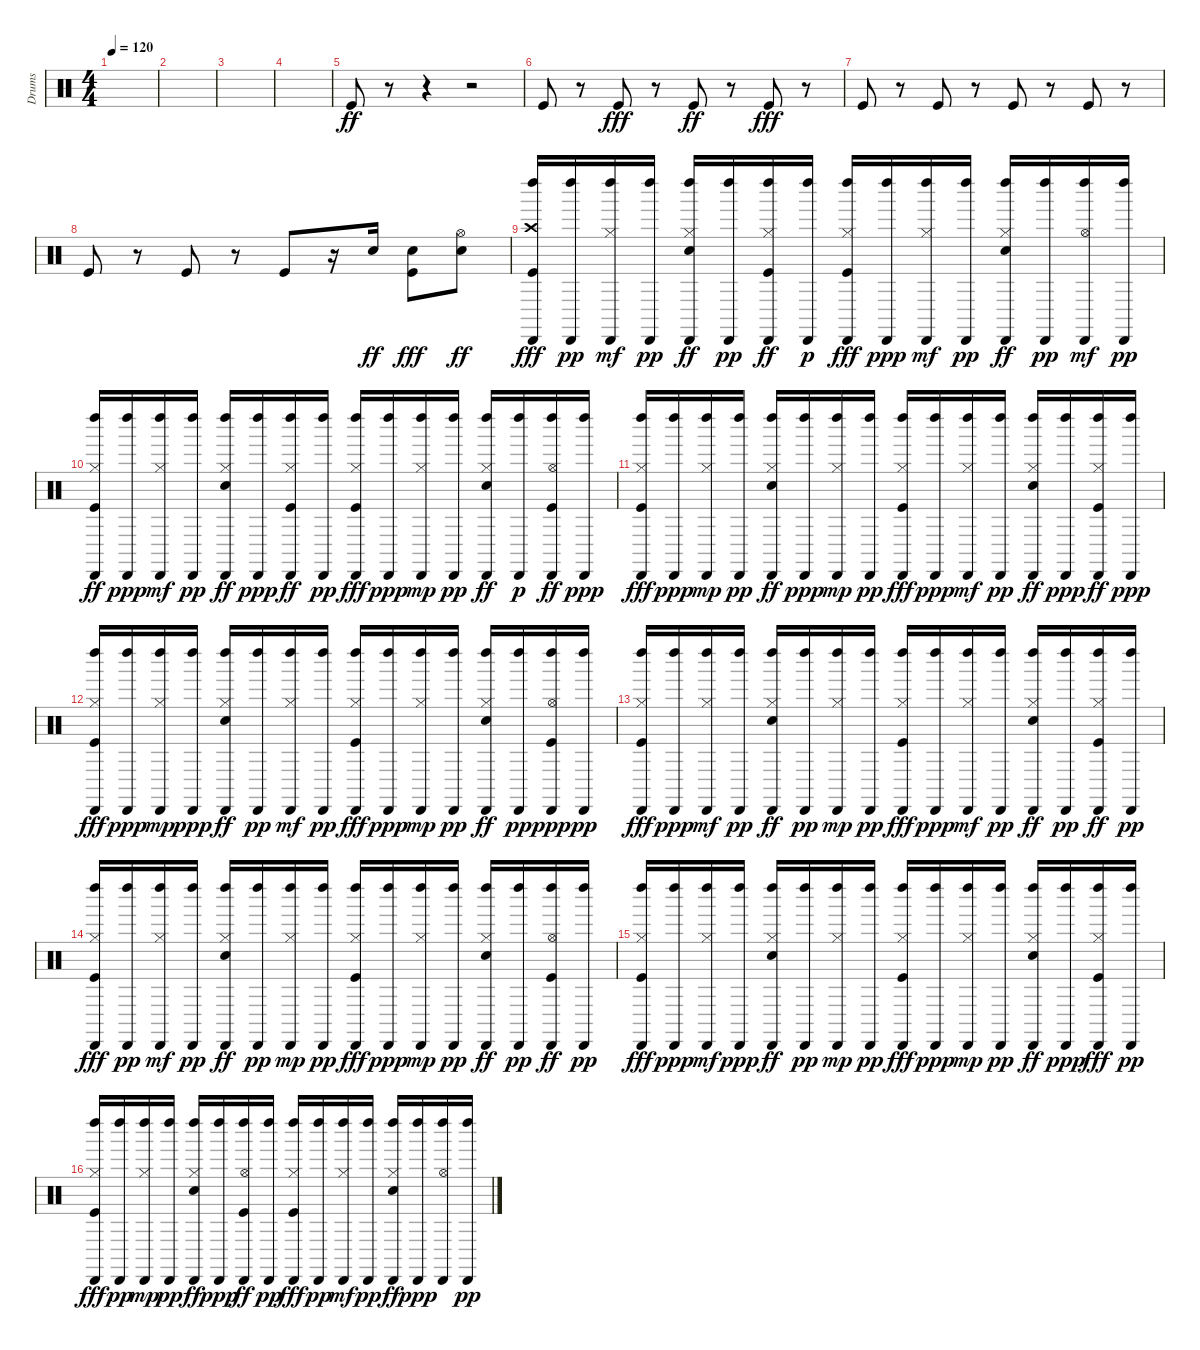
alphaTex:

\track ("Drums" "Drums") {instrument percussion}
\staff {score}
\articulation defaults
\ts (4 4)
\tempo 120
\clef neutral
\ks c
|
|
|
|
"Kick (hit)".8{dy ff} r.8 r.4 r.2 |
"Kick (hit)".8 r.8 "Kick (hit)".8{dy fff} r.8 "Kick (hit)".8{dy ff} r.8 "Kick (hit)".8{dy fff} r.8 |
"Kick (hit)".8 r.8 "Kick (hit)".8 r.8 "Kick (hit)".8 r.8 "Kick (hit)".8 r.8 |
"Kick (hit)".8 r.8 "Kick (hit)".8 r.8 "Kick (hit)".8 r.16 "Electric Snare (hit)".16{dy ff} ("Electric Snare (hit)" "Kick (hit)").8{dy fff} ("Hi-Hat (open)" "Electric Snare (hit)").8{dy ff} |
("Left Maraca (hit)" "Cabasa (hit)" "Crash high (hit)" "Kick (hit)").16{dy fff} ("Left Maraca (hit)" "Cabasa (hit)").16{dy pp} ("Left Maraca (hit)" "Cabasa (hit)" "Hi-Hat (closed)").16{dy mf} ("Left Maraca (hit)" "Cabasa (hit)").16{dy pp} ("Left Maraca (hit)" "Cabasa (hit)" "Hi-Hat (closed)" "Electric Snare (hit)").16{dy ff} ("Left Maraca (hit)" "Cabasa (hit)").16{dy pp} ("Left Maraca (hit)" "Cabasa (hit)" "Hi-Hat (closed)" "Kick (hit)").16{dy ff} ("Left Maraca (hit)" "Cabasa (hit)").16{dy p} ("Left Maraca (hit)" "Cabasa (hit)" "Hi-Hat (closed)" "Kick (hit)").16{dy fff} ("Left Maraca (hit)" "Cabasa (hit)").16{dy ppp} ("Left Maraca (hit)" "Cabasa (hit)" "Hi-Hat (closed)").16{dy mf} ("Left Maraca (hit)" "Cabasa (hit)").16{dy pp} ("Left Maraca (hit)" "Cabasa (hit)" "Hi-Hat (closed)" "Electric Snare (hit)").16{dy ff} ("Left Maraca (hit)" "Cabasa (hit)").16{dy pp} ("Left Maraca (hit)" "Cabasa (hit)" "Hi-Hat (open)").16{dy mf} ("Left Maraca (hit)" "Cabasa (hit)").16{dy pp} |
("Left Maraca (hit)" "Cabasa (hit)" "Hi-Hat (closed)" "Kick (hit)").16{dy ff} ("Left Maraca (hit)" "Cabasa (hit)").16{dy ppp} ("Left Maraca (hit)" "Cabasa (hit)" "Hi-Hat (closed)").16{dy mf} ("Left Maraca (hit)" "Cabasa (hit)").16{dy pp} ("Left Maraca (hit)" "Cabasa (hit)" "Hi-Hat (closed)" "Electric Snare (hit)").16{dy ff} ("Left Maraca (hit)" "Cabasa (hit)").16{dy ppp} ("Left Maraca (hit)" "Cabasa (hit)" "Hi-Hat (closed)" "Kick (hit)").16{dy ff} ("Left Maraca (hit)" "Cabasa (hit)").16{dy pp} ("Left Maraca (hit)" "Cabasa (hit)" "Hi-Hat (closed)" "Kick (hit)").16{dy fff} ("Left Maraca (hit)" "Cabasa (hit)").16{dy ppp} ("Left Maraca (hit)" "Cabasa (hit)" "Hi-Hat (closed)").16{dy mp} ("Left Maraca (hit)" "Cabasa (hit)").16{dy pp} ("Left Maraca (hit)" "Cabasa (hit)" "Hi-Hat (closed)" "Electric Snare (hit)").16{dy ff} ("Left Maraca (hit)" "Cabasa (hit)").16{dy p} ("Left Maraca (hit)" "Cabasa (hit)" "Hi-Hat (open)" "Kick (hit)").16{dy ff} ("Left Maraca (hit)" "Cabasa (hit)").16{dy ppp} |
("Left Maraca (hit)" "Cabasa (hit)" "Hi-Hat (closed)" "Kick (hit)").16{dy fff} ("Left Maraca (hit)" "Cabasa (hit)").16{dy ppp} ("Left Maraca (hit)" "Cabasa (hit)" "Hi-Hat (closed)").16{dy mp} ("Left Maraca (hit)" "Cabasa (hit)").16{dy pp} ("Left Maraca (hit)" "Cabasa (hit)" "Hi-Hat (closed)" "Electric Snare (hit)").16{dy ff} ("Left Maraca (hit)" "Cabasa (hit)").16{dy ppp} ("Left Maraca (hit)" "Cabasa (hit)" "Hi-Hat (closed)").16{dy mp} ("Left Maraca (hit)" "Cabasa (hit)").16{dy pp} ("Left Maraca (hit)" "Cabasa (hit)" "Hi-Hat (closed)" "Kick (hit)").16{dy fff} ("Left Maraca (hit)" "Cabasa (hit)").16{dy ppp} ("Left Maraca (hit)" "Cabasa (hit)" "Hi-Hat (closed)").16{dy mf} ("Left Maraca (hit)" "Cabasa (hit)").16{dy pp} ("Left Maraca (hit)" "Cabasa (hit)" "Hi-Hat (closed)" "Electric Snare (hit)").16{dy ff} ("Left Maraca (hit)" "Cabasa (hit)").16{dy ppp} ("Left Maraca (hit)" "Cabasa (hit)" "Hi-Hat (closed)" "Kick (hit)").16{dy ff} ("Left Maraca (hit)" "Cabasa (hit)").16{dy ppp} |
("Left Maraca (hit)" "Cabasa (hit)" "Hi-Hat (closed)" "Kick (hit)").16{dy fff} ("Left Maraca (hit)" "Cabasa (hit)").16{dy ppp} ("Left Maraca (hit)" "Cabasa (hit)" "Hi-Hat (closed)").16{dy mp} ("Left Maraca (hit)" "Cabasa (hit)").16{dy ppp} ("Left Maraca (hit)" "Cabasa (hit)" "Hi-Hat (closed)" "Electric Snare (hit)").16{dy ff} ("Left Maraca (hit)" "Cabasa (hit)").16{dy pp} ("Left Maraca (hit)" "Cabasa (hit)" "Hi-Hat (closed)").16{dy mf} ("Left Maraca (hit)" "Cabasa (hit)").16{dy pp} ("Left Maraca (hit)" "Cabasa (hit)" "Hi-Hat (closed)" "Kick (hit)").16{dy fff} ("Left Maraca (hit)" "Cabasa (hit)").16{dy ppp} ("Left Maraca (hit)" "Cabasa (hit)" "Hi-Hat (closed)").16{dy mp} ("Left Maraca (hit)" "Cabasa (hit)").16{dy pp} ("Left Maraca (hit)" "Cabasa (hit)" "Hi-Hat (closed)" "Electric Snare (hit)").16{dy ff} ("Left Maraca (hit)" "Cabasa (hit)").16{dy pp} ("Left Maraca (hit)" "Cabasa (hit)" "Hi-Hat (open)" "Kick (hit)").16{dy ppp} ("Left Maraca (hit)" "Cabasa (hit)").16{dy pp} |
("Left Maraca (hit)" "Cabasa (hit)" "Hi-Hat (closed)" "Kick (hit)").16{dy fff} ("Left Maraca (hit)" "Cabasa (hit)").16{dy ppp} ("Left Maraca (hit)" "Cabasa (hit)" "Hi-Hat (closed)").16{dy mf} ("Left Maraca (hit)" "Cabasa (hit)").16{dy pp} ("Left Maraca (hit)" "Cabasa (hit)" "Hi-Hat (closed)" "Electric Snare (hit)").16{dy ff} ("Left Maraca (hit)" "Cabasa (hit)").16{dy pp} ("Left Maraca (hit)" "Cabasa (hit)" "Hi-Hat (closed)").16{dy mp} ("Left Maraca (hit)" "Cabasa (hit)").16{dy pp} ("Left Maraca (hit)" "Cabasa (hit)" "Hi-Hat (closed)" "Kick (hit)").16{dy fff} ("Left Maraca (hit)" "Cabasa (hit)").16{dy ppp} ("Left Maraca (hit)" "Cabasa (hit)" "Hi-Hat (closed)").16{dy mf} ("Left Maraca (hit)" "Cabasa (hit)").16{dy pp} ("Left Maraca (hit)" "Cabasa (hit)" "Hi-Hat (closed)" "Electric Snare (hit)").16{dy ff} ("Left Maraca (hit)" "Cabasa (hit)").16{dy pp} ("Left Maraca (hit)" "Cabasa (hit)" "Hi-Hat (closed)" "Kick (hit)").16{dy ff} ("Left Maraca (hit)" "Cabasa (hit)").16{dy pp} |
("Left Maraca (hit)" "Cabasa (hit)" "Hi-Hat (closed)" "Kick (hit)").16{dy fff} ("Left Maraca (hit)" "Cabasa (hit)").16{dy pp} ("Left Maraca (hit)" "Cabasa (hit)" "Hi-Hat (closed)").16{dy mf} ("Left Maraca (hit)" "Cabasa (hit)").16{dy pp} ("Left Maraca (hit)" "Cabasa (hit)" "Hi-Hat (closed)" "Electric Snare (hit)").16{dy ff} ("Left Maraca (hit)" "Cabasa (hit)").16{dy pp} ("Left Maraca (hit)" "Cabasa (hit)" "Hi-Hat (closed)").16{dy mp} ("Left Maraca (hit)" "Cabasa (hit)").16{dy pp} ("Left Maraca (hit)" "Cabasa (hit)" "Hi-Hat (closed)" "Kick (hit)").16{dy fff} ("Left Maraca (hit)" "Cabasa (hit)").16{dy ppp} ("Left Maraca (hit)" "Cabasa (hit)" "Hi-Hat (closed)").16{dy mp} ("Left Maraca (hit)" "Cabasa (hit)").16{dy pp} ("Left Maraca (hit)" "Cabasa (hit)" "Hi-Hat (closed)" "Electric Snare (hit)").16{dy ff} ("Left Maraca (hit)" "Cabasa (hit)").16{dy pp} ("Left Maraca (hit)" "Cabasa (hit)" "Hi-Hat (open)" "Kick (hit)").16{dy ff} ("Left Maraca (hit)" "Cabasa (hit)").16{dy pp} |
("Left Maraca (hit)" "Cabasa (hit)" "Hi-Hat (closed)" "Kick (hit)").16{dy fff} ("Left Maraca (hit)" "Cabasa (hit)").16{dy ppp} ("Left Maraca (hit)" "Cabasa (hit)" "Hi-Hat (closed)").16{dy mf} ("Left Maraca (hit)" "Cabasa (hit)").16{dy ppp} ("Left Maraca (hit)" "Cabasa (hit)" "Hi-Hat (closed)" "Electric Snare (hit)").16{dy ff} ("Left Maraca (hit)" "Cabasa (hit)").16{dy pp} ("Left Maraca (hit)" "Cabasa (hit)" "Hi-Hat (closed)").16{dy mp} ("Left Maraca (hit)" "Cabasa (hit)").16{dy pp} ("Left Maraca (hit)" "Cabasa (hit)" "Hi-Hat (closed)" "Kick (hit)").16{dy fff} ("Left Maraca (hit)" "Cabasa (hit)").16{dy ppp} ("Left Maraca (hit)" "Cabasa (hit)" "Hi-Hat (closed)").16{dy mp} ("Left Maraca (hit)" "Cabasa (hit)").16{dy pp} ("Left Maraca (hit)" "Cabasa (hit)" "Hi-Hat (closed)" "Electric Snare (hit)").16{dy ff} ("Left Maraca (hit)" "Cabasa (hit)").16{dy ppp} ("Left Maraca (hit)" "Cabasa (hit)" "Hi-Hat (closed)" "Kick (hit)").16{dy fff} ("Left Maraca (hit)" "Cabasa (hit)").16{dy pp} |
("Left Maraca (hit)" "Cabasa (hit)" "Hi-Hat (closed)" "Kick (hit)").16{dy fff} ("Left Maraca (hit)" "Cabasa (hit)").16{dy pp} ("Left Maraca (hit)" "Cabasa (hit)" "Hi-Hat (closed)").16{dy mp} ("Left Maraca (hit)" "Cabasa (hit)").16{dy pp} ("Left Maraca (hit)" "Cabasa (hit)" "Hi-Hat (closed)" "Electric Snare (hit)").16{dy ff} ("Left Maraca (hit)" "Cabasa (hit)").16{dy ppp} ("Left Maraca (hit)" "Cabasa (hit)" "Hi-Hat (open)" "Kick (hit)").16{dy ff} ("Left Maraca (hit)" "Cabasa (hit)").16{dy pp} ("Left Maraca (hit)" "Cabasa (hit)" "Hi-Hat (closed)" "Kick (hit)").16{dy fff} ("Left Maraca (hit)" "Cabasa (hit)").16{dy pp} ("Left Maraca (hit)" "Cabasa (hit)" "Hi-Hat (closed)").16{dy mf} ("Left Maraca (hit)" "Cabasa (hit)").16{dy pp} ("Left Maraca (hit)" "Cabasa (hit)" "Hi-Hat (closed)" "Electric Snare (hit)").16{dy ff} ("Left Maraca (hit)" "Cabasa (hit)").16{dy ppp} ("Left Maraca (hit)" "Cabasa (hit)" "Hi-Hat (open)").16 ("Left Maraca (hit)" "Cabasa (hit)").16{dy pp}
